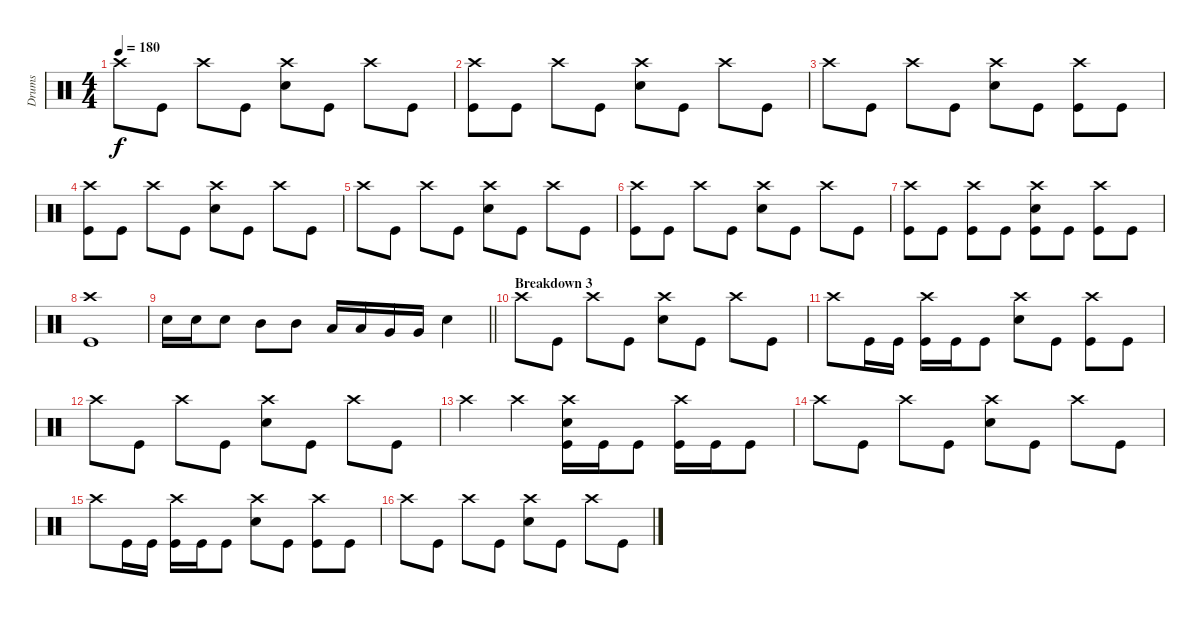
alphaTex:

\track ("Drums" "Drums") {instrument percussion}
\staff {score}
\articulation defaults
\ts (4 4)
\tempo 180
\clef neutral
\ks c "Crash high (hit)".8{dy f} "Kick (hit)".8 "Crash high (hit)".8 "Kick (hit)".8
("Crash high (hit)" "Snare (hit) 2").8 "Kick (hit)".8 "Crash high (hit)".8 "Kick (hit)".8 |
("Crash high (hit)" "Kick (hit)").8 "Kick (hit)".8 "Crash high (hit)".8 "Kick (hit)".8 ("Crash high (hit)" "Snare (hit) 2").8 "Kick (hit)".8 "Crash high (hit)".8 "Kick (hit)".8 |
"Crash high (hit)".8 "Kick (hit)".8 "Crash high (hit)".8 "Kick (hit)".8 ("Crash high (hit)" "Snare (hit) 2").8 "Kick (hit)".8 ("Crash high (hit)" "Kick (hit)").8 "Kick (hit)".8 |
("Crash high (hit)" "Kick (hit)").8 "Kick (hit)".8 "Crash high (hit)".8 "Kick (hit)".8 ("Crash high (hit)" "Snare (hit) 2").8 "Kick (hit)".8 "Crash high (hit)".8 "Kick (hit)".8 |
"Crash high (hit)".8 "Kick (hit)".8 "Crash high (hit)".8 "Kick (hit)".8 ("Crash high (hit)" "Snare (hit) 2").8 "Kick (hit)".8 "Crash high (hit)".8 "Kick (hit)".8 |
("Crash high (hit)" "Kick (hit)").8 "Kick (hit)".8 "Crash high (hit)".8 "Kick (hit)".8 ("Crash high (hit)" "Snare (hit) 2").8 "Kick (hit)".8 "Crash high (hit)".8 "Kick (hit)".8 |
("Crash high (hit)" "Kick (hit)").8 "Kick (hit)".8 ("Crash high (hit)" "Kick (hit)").8 "Kick (hit)".8 ("Crash high (hit)" "Snare (hit) 2" "Kick (hit)").8 "Kick (hit)".8 ("Crash high (hit)" "Kick (hit)").8 "Kick (hit)".8 |
("Crash high (hit)" "Kick (hit)").1 |
\barLineRight lightlight "Snare (hit) 2".16 "Snare (hit) 2".16 "Snare (hit) 2".8 "Mid Tom (hit)".8 "Mid Tom (hit)".8 "Low Tom (hit)".16 "Low Tom (hit)".16 "Very Low Tom (hit)".16 "Very Low Tom (hit)".16 "Snare (hit) 2".4
|
\section ("" "Breakdown 3")
"Crash high (hit)".8 "Kick (hit)".8 "Crash high (hit)".8 "Kick (hit)".8 ("Crash high (hit)" "Snare (hit) 2").8 "Kick (hit)".8 "Crash high (hit)".8 "Kick (hit)".8 |
"Crash high (hit)".8 "Kick (hit)".16 "Kick (hit)".16 ("Crash high (hit)" "Kick (hit)").16 "Kick (hit)".16 "Kick (hit)".8 ("Crash high (hit)" "Snare (hit) 2").8 "Kick (hit)".8 ("Crash high (hit)" "Kick (hit)").8 "Kick (hit)".8 |
"Crash high (hit)".8 "Kick (hit)".8 "Crash high (hit)".8 "Kick (hit)".8 ("Crash high (hit)" "Snare (hit) 2").8 "Kick (hit)".8 "Crash high (hit)".8 "Kick (hit)".8 |
"Crash high (hit)".4 "Crash high (hit)".4 ("Crash high (hit)" "Snare (hit) 2" "Kick (hit)").16 "Kick (hit)".16 "Kick (hit)".8 ("Crash high (hit)" "Kick (hit)").16 "Kick (hit)".16 "Kick (hit)".8 |
"Crash high (hit)".8 "Kick (hit)".8 "Crash high (hit)".8 "Kick (hit)".8 ("Crash high (hit)" "Snare (hit) 2").8 "Kick (hit)".8 "Crash high (hit)".8 "Kick (hit)".8 |
"Crash high (hit)".8 "Kick (hit)".16 "Kick (hit)".16 ("Crash high (hit)" "Kick (hit)").16 "Kick (hit)".16 "Kick (hit)".8 ("Crash high (hit)" "Snare (hit) 2").8 "Kick (hit)".8 ("Crash high (hit)" "Kick (hit)").8 "Kick (hit)".8 |
"Crash high (hit)".8 "Kick (hit)".8 "Crash high (hit)".8 "Kick (hit)".8 ("Crash high (hit)" "Snare (hit) 2").8 "Kick (hit)".8 "Crash high (hit)".8 "Kick (hit)".8
